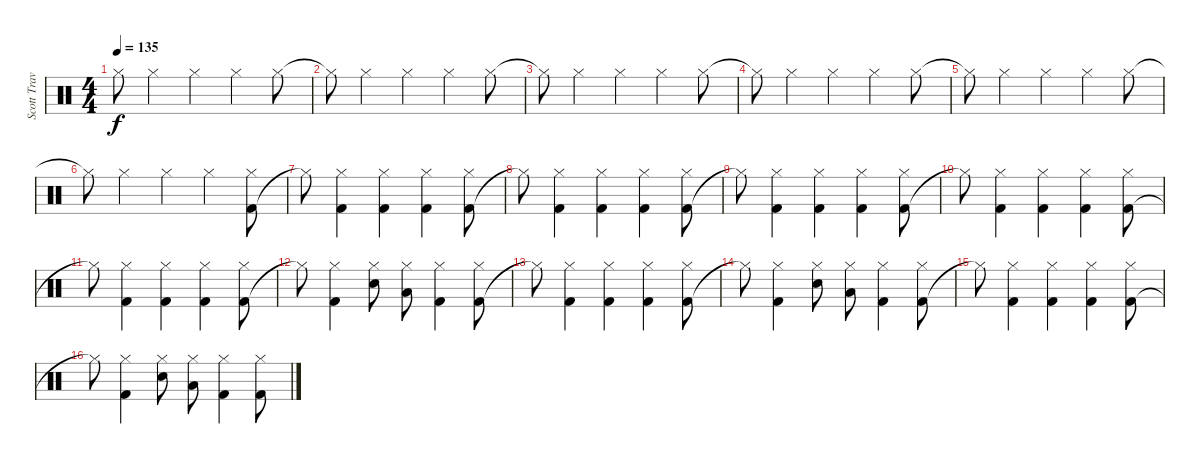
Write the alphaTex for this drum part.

\track ("Scott Travis" "Scott Trav") {instrument percussion}
\staff {score}
\articulation defaults
\ts (4 4)
\tempo 135
\clef neutral
\ks c "Hi-Hat (closed)"{t}.8{dy f} "Hi-Hat (closed)".4 "Hi-Hat (closed)".4 "Hi-Hat (closed)".4 "Hi-Hat (closed)".8
|
"Hi-Hat (closed)"{t}.8 "Hi-Hat (closed)".4 "Hi-Hat (closed)".4 "Hi-Hat (closed)".4 "Hi-Hat (closed)".8 |
"Hi-Hat (closed)"{t}.8 "Hi-Hat (closed)".4 "Hi-Hat (closed)".4 "Hi-Hat (closed)".4 "Hi-Hat (closed)".8 |
"Hi-Hat (closed)"{t}.8 "Hi-Hat (closed)".4 "Hi-Hat (closed)".4 "Hi-Hat (closed)".4 "Hi-Hat (closed)".8 |
"Hi-Hat (closed)"{t}.8 "Hi-Hat (closed)".4 "Hi-Hat (closed)".4 "Hi-Hat (closed)".4 "Hi-Hat (closed)".8 |
"Hi-Hat (closed)"{t}.8 "Hi-Hat (closed)".4 "Hi-Hat (closed)".4 "Hi-Hat (closed)".4 ("Kick (hit) 2" "Hi-Hat (closed)").8 |
"Hi-Hat (closed)"{t}.8 ("Kick (hit) 2" "Hi-Hat (closed)").4 ("Kick (hit) 2" "Hi-Hat (closed)").4 ("Kick (hit) 2" "Hi-Hat (closed)").4 ("Kick (hit) 2" "Hi-Hat (closed)").8 |
"Hi-Hat (closed)"{t}.8 ("Kick (hit) 2" "Hi-Hat (closed)").4 ("Kick (hit) 2" "Hi-Hat (closed)").4 ("Kick (hit) 2" "Hi-Hat (closed)").4 ("Kick (hit) 2" "Hi-Hat (closed)").8 |
"Hi-Hat (closed)"{t}.8 ("Kick (hit) 2" "Hi-Hat (closed)").4 ("Kick (hit) 2" "Hi-Hat (closed)").4 ("Kick (hit) 2" "Hi-Hat (closed)").4 ("Kick (hit) 2" "Hi-Hat (closed)").8 |
"Hi-Hat (closed)"{t}.8 ("Kick (hit) 2" "Hi-Hat (closed)").4 ("Kick (hit) 2" "Hi-Hat (closed)").4 ("Kick (hit) 2" "Hi-Hat (closed)").4 ("Kick (hit) 2" "Hi-Hat (closed)").8 |
"Hi-Hat (closed)"{t}.8 ("Kick (hit) 2" "Hi-Hat (closed)").4 ("Kick (hit) 2" "Hi-Hat (closed)").4 ("Kick (hit) 2" "Hi-Hat (closed)").4 ("Kick (hit) 2" "Hi-Hat (closed)").8 |
"Hi-Hat (closed)"{t}.8 ("Kick (hit) 2" "Hi-Hat (closed)").4 ("Hi-Hat (closed)" "Snare (hit) 2").8 ("Hi-Hat (closed)" "Low Floor Tom (hit)").8 ("Kick (hit) 2" "Hi-Hat (closed)").4 ("Kick (hit) 2" "Hi-Hat (closed)").8 |
"Hi-Hat (closed)"{t}.8 ("Kick (hit) 2" "Hi-Hat (closed)").4 ("Kick (hit) 2" "Hi-Hat (closed)").4 ("Kick (hit) 2" "Hi-Hat (closed)").4 ("Kick (hit) 2" "Hi-Hat (closed)").8 |
"Hi-Hat (closed)"{t}.8 ("Kick (hit) 2" "Hi-Hat (closed)").4 ("Hi-Hat (closed)" "Snare (hit) 2").8 ("Hi-Hat (closed)" "Low Floor Tom (hit)").8 ("Kick (hit) 2" "Hi-Hat (closed)").4 ("Kick (hit) 2" "Hi-Hat (closed)").8 |
"Hi-Hat (closed)"{t}.8 ("Kick (hit) 2" "Hi-Hat (closed)").4 ("Kick (hit) 2" "Hi-Hat (closed)").4 ("Kick (hit) 2" "Hi-Hat (closed)").4 ("Kick (hit) 2" "Hi-Hat (closed)").8 |
"Hi-Hat (closed)"{t}.8 ("Kick (hit) 2" "Hi-Hat (closed)").4 ("Hi-Hat (closed)" "Snare (hit) 2").8 ("Hi-Hat (closed)" "Low Floor Tom (hit)").8 ("Kick (hit) 2" "Hi-Hat (closed)").4 ("Kick (hit) 2" "Hi-Hat (closed)").8
